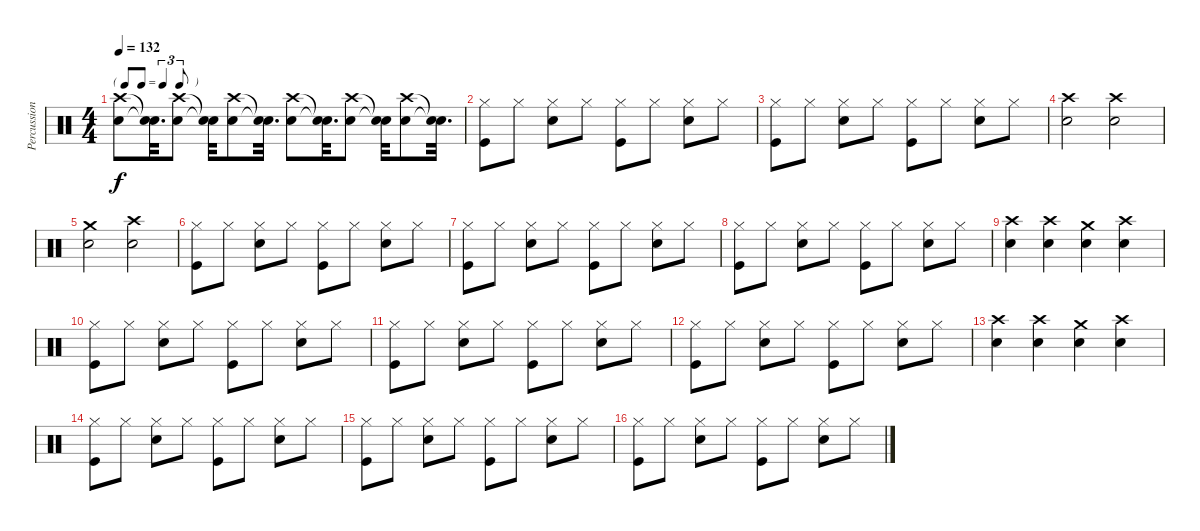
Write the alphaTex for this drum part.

\track ("Percussion" "Percussion") {instrument percussion}
\staff {score}
\articulation defaults
\ts (4 4)
\tf triplet8th
\tempo 132
\clef neutral
\ks c
("Crash high (hit)" "Snare (hit) 2").8{dy f} ("Snare (hit)"{t} "Snare (hit)"{t}).32{d} ("Crash high (hit)" "Snare (hit) 2").8 ("Snare (hit)"{t} "Snare (hit)"{t}).32 ("Crash high (hit)" "Snare (hit) 2").8 ("Snare (hit)"{t} "Snare (hit)"{t}).32{d} ("Crash high (hit)" "Snare (hit) 2").8 ("Snare (hit)"{t} "Snare (hit)"{t}).32{d} ("Crash high (hit)" "Snare (hit) 2").8 ("Snare (hit)"{t} "Snare (hit)"{t}).32 ("Crash high (hit)" "Snare (hit) 2").8 ("Snare (hit)"{t} "Snare (hit)"{t}).32{d} |
("Hi-Hat (closed)" "Kick (hit)").8 "Hi-Hat (closed)".8 ("Hi-Hat (closed)" "Snare (hit) 2").8 "Hi-Hat (closed)".8 ("Hi-Hat (closed)" "Kick (hit)").8 "Hi-Hat (closed)".8 ("Hi-Hat (closed)" "Snare (hit) 2").8 "Hi-Hat (closed)".8 |
("Hi-Hat (closed)" "Kick (hit)").8 "Hi-Hat (closed)".8 ("Hi-Hat (closed)" "Snare (hit) 2").8 "Hi-Hat (closed)".8 ("Hi-Hat (closed)" "Kick (hit)").8 "Hi-Hat (closed)".8 ("Hi-Hat (closed)" "Snare (hit) 2").8 "Hi-Hat (closed)".8 |
("Crash high (hit)" "Snare (hit) 2").2 ("Crash high (hit)" "Snare (hit) 2").2 |
("Crash medium (hit)" "Snare (hit) 2").2 ("Crash high (hit)" "Snare (hit) 2").2 |
("Hi-Hat (closed)" "Kick (hit)").8 "Hi-Hat (closed)".8 ("Hi-Hat (closed)" "Snare (hit) 2").8 "Hi-Hat (closed)".8 ("Hi-Hat (closed)" "Kick (hit)").8 "Hi-Hat (closed)".8 ("Hi-Hat (closed)" "Snare (hit) 2").8 "Hi-Hat (closed)".8 |
("Hi-Hat (closed)" "Kick (hit)").8 "Hi-Hat (closed)".8 ("Hi-Hat (closed)" "Snare (hit) 2").8 "Hi-Hat (closed)".8 ("Hi-Hat (closed)" "Kick (hit)").8 "Hi-Hat (closed)".8 ("Hi-Hat (closed)" "Snare (hit) 2").8 "Hi-Hat (closed)".8 |
("Hi-Hat (closed)" "Kick (hit)").8 "Hi-Hat (closed)".8 ("Hi-Hat (closed)" "Snare (hit) 2").8 "Hi-Hat (closed)".8 ("Hi-Hat (closed)" "Kick (hit)").8 "Hi-Hat (closed)".8 ("Hi-Hat (closed)" "Snare (hit) 2").8 "Hi-Hat (closed)".8 |
("Crash high (hit)" "Snare (hit) 2").4 ("Crash high (hit)" "Snare (hit) 2").4 ("Crash medium (hit)" "Snare (hit) 2").4 ("Crash high (hit)" "Snare (hit) 2").4 |
("Hi-Hat (closed)" "Kick (hit)").8 "Hi-Hat (closed)".8 ("Hi-Hat (closed)" "Snare (hit) 2").8 "Hi-Hat (closed)".8 ("Hi-Hat (closed)" "Kick (hit)").8 "Hi-Hat (closed)".8 ("Hi-Hat (closed)" "Snare (hit) 2").8 "Hi-Hat (closed)".8 |
("Hi-Hat (closed)" "Kick (hit)").8 "Hi-Hat (closed)".8 ("Hi-Hat (closed)" "Snare (hit) 2").8 "Hi-Hat (closed)".8 ("Hi-Hat (closed)" "Kick (hit)").8 "Hi-Hat (closed)".8 ("Hi-Hat (closed)" "Snare (hit) 2").8 "Hi-Hat (closed)".8 |
("Hi-Hat (closed)" "Kick (hit)").8 "Hi-Hat (closed)".8 ("Hi-Hat (closed)" "Snare (hit) 2").8 "Hi-Hat (closed)".8 ("Hi-Hat (closed)" "Kick (hit)").8 "Hi-Hat (closed)".8 ("Hi-Hat (closed)" "Snare (hit) 2").8 "Hi-Hat (closed)".8 |
("Crash high (hit)" "Snare (hit) 2").4 ("Crash high (hit)" "Snare (hit) 2").4 ("Crash medium (hit)" "Snare (hit) 2").4 ("Crash high (hit)" "Snare (hit) 2").4 |
("Hi-Hat (closed)" "Kick (hit)").8 "Hi-Hat (closed)".8 ("Hi-Hat (closed)" "Snare (hit) 2").8 "Hi-Hat (closed)".8 ("Hi-Hat (closed)" "Kick (hit)").8 "Hi-Hat (closed)".8 ("Hi-Hat (closed)" "Snare (hit) 2").8 "Hi-Hat (closed)".8 |
("Hi-Hat (closed)" "Kick (hit)").8 "Hi-Hat (closed)".8 ("Hi-Hat (closed)" "Snare (hit) 2").8 "Hi-Hat (closed)".8 ("Hi-Hat (closed)" "Kick (hit)").8 "Hi-Hat (closed)".8 ("Hi-Hat (closed)" "Snare (hit) 2").8 "Hi-Hat (closed)".8 |
("Hi-Hat (closed)" "Kick (hit)").8 "Hi-Hat (closed)".8 ("Hi-Hat (closed)" "Snare (hit) 2").8 "Hi-Hat (closed)".8 ("Hi-Hat (closed)" "Kick (hit)").8 "Hi-Hat (closed)".8 ("Hi-Hat (closed)" "Snare (hit) 2").8 "Hi-Hat (closed)".8
